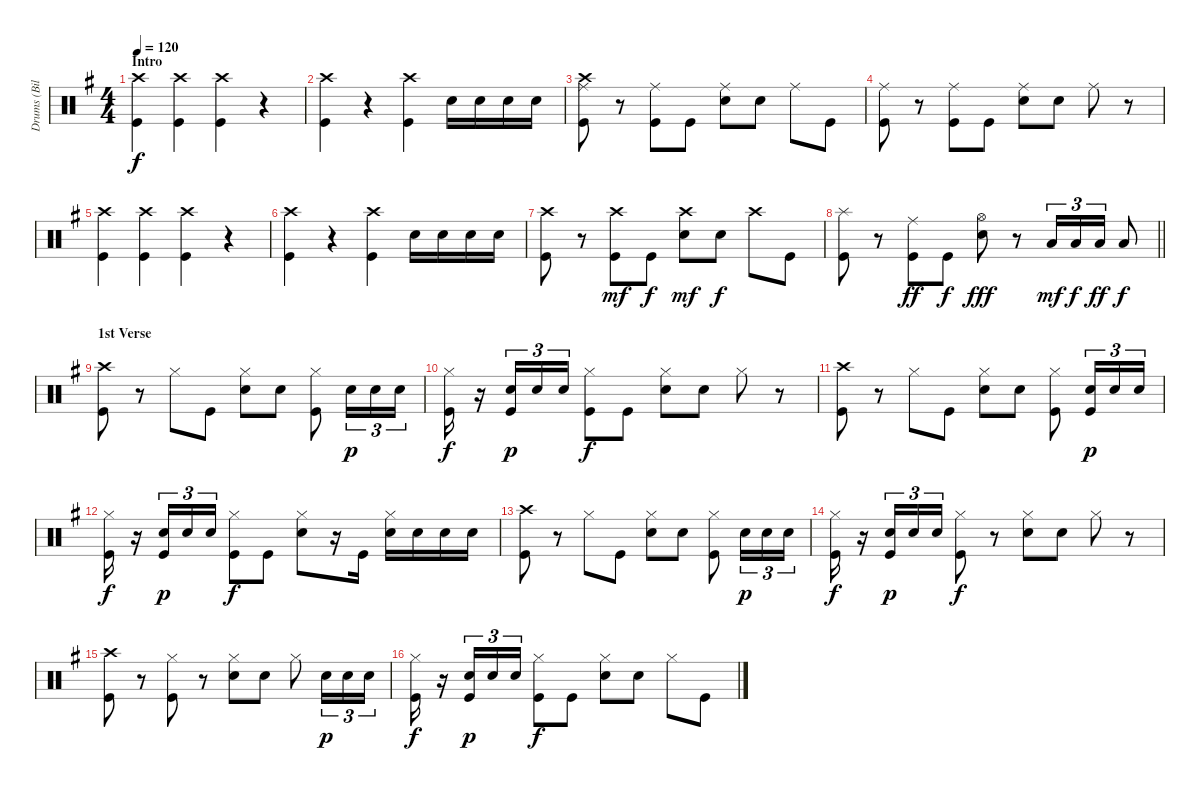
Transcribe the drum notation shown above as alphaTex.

\track ("Drums (Bill Ward)" "Drums (Bil") {instrument percussion}
\staff {score}
\articulation defaults
\ts (4 4)
\section ("" "Intro")
\tempo 120
\clef neutral
\ks g
("Crash high (hit)" "Kick (hit)").4{dy f} ("Crash high (hit)" "Kick (hit)").4 ("Crash high (hit)" "Kick (hit)").4 r.4 |
("Crash high (hit)" "Kick (hit)").4 r.4 ("Crash high (hit)" "Kick (hit)").4 "Electric Snare (hit)".16 "Electric Snare (hit)".16 "Electric Snare (hit)".16 "Electric Snare (hit)".16 |
("Crash high (hit)" "Ride (middle)" "Kick (hit)").8 r.8 ("Ride (middle)" "Kick (hit)").8 "Kick (hit)".8 ("Ride (middle)" "Electric Snare (hit)").8 "Electric Snare (hit)".8 "Ride (middle)".8 "Kick (hit)".8 |
("Ride (middle)" "Kick (hit)").8 r.8 ("Ride (middle)" "Kick (hit)").8 "Kick (hit)".8 ("Ride (middle)" "Electric Snare (hit)").8 "Electric Snare (hit)".8 "Ride (middle)".8 r.8 |
("Crash high (hit)" "Kick (hit)").4 ("Crash high (hit)" "Kick (hit)").4 ("Crash high (hit)" "Kick (hit)").4 r.4 |
("Crash high (hit)" "Kick (hit)").4 r.4 ("Crash high (hit)" "Kick (hit)").4 "Electric Snare (hit)".16 "Electric Snare (hit)".16 "Electric Snare (hit)".16 "Electric Snare (hit)".16 |
("Crash high (hit)" "Kick (hit)").8 r.8 ("Crash high (hit)" "Kick (hit)").8{dy mf} "Kick (hit)".8{dy f} ("Crash high (hit)" "Electric Snare (hit)").8{dy mf} "Electric Snare (hit)".8{dy f} "Crash high (hit)".8 "Kick (hit)".8 |
\barLineRight lightlight
("Splash (hit)" "Kick (hit)").8 r.8 ("Ride (middle)" "Kick (hit)").8{dy ff} "Kick (hit)".8{dy f} ("Hi-Hat (open)" "Electric Snare (hit)").8{dy fff} r.8 "Low Tom (hit)".16{tu (3 2) dy mf} "Low Tom (hit)".16{tu (3 2) dy f} "Low Tom (hit)".16{tu (3 2) dy ff} "Low Tom (hit)".8{dy f} |
\section ("" "1st Verse")
("Crash high (hit)" "Kick (hit)").8 r.8 "Hi-Hat (closed)".8 "Kick (hit)".8 ("Hi-Hat (closed)" "Electric Snare (hit)").8 "Electric Snare (hit)".8 ("Hi-Hat (closed)" "Kick (hit)").8 "Electric Snare (hit)".16{tu (3 2) dy p} "Electric Snare (hit)".16{tu (3 2)} "Electric Snare (hit)".16{tu (3 2)} |
("Hi-Hat (closed)" "Kick (hit)").16{dy f} r.16 ("Electric Snare (hit)" "Kick (hit)").16{tu (3 2) dy p} "Electric Snare (hit)".16{tu (3 2)} "Electric Snare (hit)".16{tu (3 2)} ("Hi-Hat (closed)" "Kick (hit)").8{dy f} "Kick (hit)".8 ("Hi-Hat (closed)" "Electric Snare (hit)").8 "Electric Snare (hit)".8 "Hi-Hat (closed)".8 r.8 |
("Crash high (hit)" "Kick (hit)").8 r.8 "Hi-Hat (closed)".8 "Kick (hit)".8 ("Hi-Hat (closed)" "Electric Snare (hit)").8 "Electric Snare (hit)".8 ("Hi-Hat (closed)" "Kick (hit)").8 ("Electric Snare (hit)" "Kick (hit)").16{tu (3 2) dy p} "Electric Snare (hit)".16{tu (3 2)} "Electric Snare (hit)".16{tu (3 2)} |
("Hi-Hat (closed)" "Kick (hit)").16{dy f} r.16 ("Electric Snare (hit)" "Kick (hit)").16{tu (3 2) dy p} "Electric Snare (hit)".16{tu (3 2)} "Electric Snare (hit)".16{tu (3 2)} ("Hi-Hat (closed)" "Kick (hit)").8{dy f} "Kick (hit)".8 ("Hi-Hat (closed)" "Electric Snare (hit)").8 r.16 "Kick (hit)".16 ("Hi-Hat (closed)" "Electric Snare (hit)").16 "Electric Snare (hit)".16 "Electric Snare (hit)".16 "Electric Snare (hit)".16 |
("Crash high (hit)" "Kick (hit)").8 r.8 "Hi-Hat (closed)".8 "Kick (hit)".8 ("Hi-Hat (closed)" "Electric Snare (hit)").8 "Electric Snare (hit)".8 ("Hi-Hat (closed)" "Kick (hit)").8 "Electric Snare (hit)".16{tu (3 2) dy p} "Electric Snare (hit)".16{tu (3 2)} "Electric Snare (hit)".16{tu (3 2)} |
("Hi-Hat (closed)" "Kick (hit)").16{dy f} r.16 ("Electric Snare (hit)" "Kick (hit)").16{tu (3 2) dy p} "Electric Snare (hit)".16{tu (3 2)} "Electric Snare (hit)".16{tu (3 2)} ("Hi-Hat (closed)" "Kick (hit)").8{dy f} r.8 ("Hi-Hat (closed)" "Electric Snare (hit)").8 "Electric Snare (hit)".8 "Hi-Hat (closed)".8 r.8 |
("Crash high (hit)" "Kick (hit)").8 r.8 ("Hi-Hat (closed)" "Kick (hit)").8 r.8 ("Hi-Hat (closed)" "Electric Snare (hit)").8 "Electric Snare (hit)".8 "Hi-Hat (closed)".8 "Electric Snare (hit)".16{tu (3 2) dy p} "Electric Snare (hit)".16{tu (3 2)} "Electric Snare (hit)".16{tu (3 2)} |
("Hi-Hat (closed)" "Kick (hit)").16{dy f} r.16 ("Electric Snare (hit)" "Kick (hit)").16{tu (3 2) dy p} "Electric Snare (hit)".16{tu (3 2)} "Electric Snare (hit)".16{tu (3 2)} ("Hi-Hat (closed)" "Kick (hit)").8{dy f} "Kick (hit)".8 ("Hi-Hat (closed)" "Electric Snare (hit)").8 "Electric Snare (hit)".8 "Hi-Hat (closed)".8 "Kick (hit)".8
